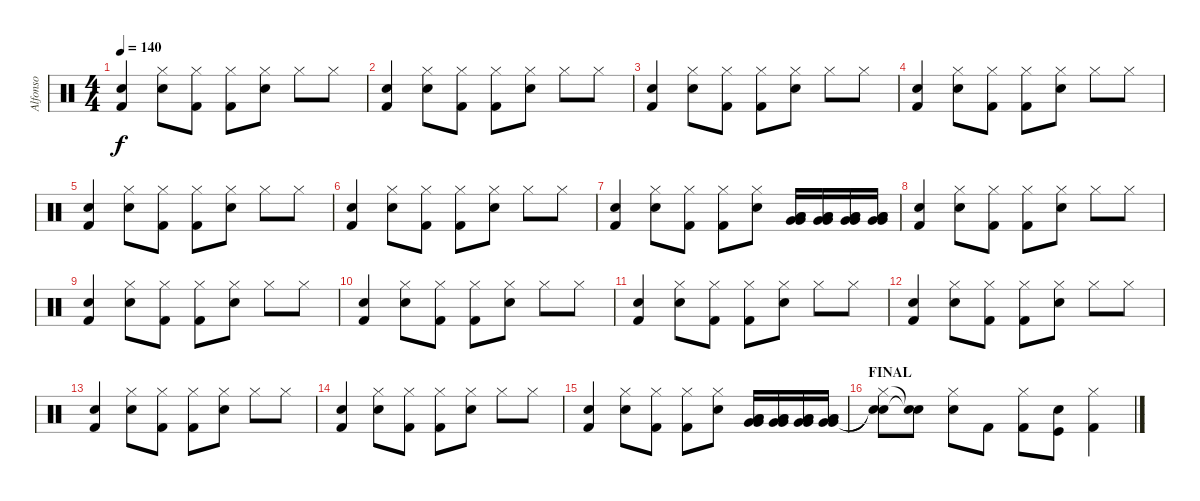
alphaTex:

\track ("Alfonso" "Alfonso") {instrument percussion}
\staff {score}
\articulation defaults
\ts (4 4)
\section ("" "")
\tempo 140
\clef neutral
\ks c
("Kick (hit) 2" "Electric Snare (hit)").4{dy f} ("Hi-Hat (closed)" "Electric Snare (hit)").8 ("Hi-Hat (closed)" "Kick (hit) 2").8 ("Hi-Hat (closed)" "Kick (hit) 2").8 ("Hi-Hat (closed)" "Electric Snare (hit)").8 "Hi-Hat (closed)".8 "Hi-Hat (closed)".8 |
("Kick (hit) 2" "Electric Snare (hit)").4 ("Hi-Hat (closed)" "Electric Snare (hit)").8 ("Hi-Hat (closed)" "Kick (hit) 2").8 ("Hi-Hat (closed)" "Kick (hit) 2").8 ("Hi-Hat (closed)" "Electric Snare (hit)").8 "Hi-Hat (closed)".8 "Hi-Hat (closed)".8 |
("Kick (hit) 2" "Electric Snare (hit)").4 ("Hi-Hat (closed)" "Electric Snare (hit)").8 ("Hi-Hat (closed)" "Kick (hit) 2").8 ("Hi-Hat (closed)" "Kick (hit) 2").8 ("Hi-Hat (closed)" "Electric Snare (hit)").8 "Hi-Hat (closed)".8 "Hi-Hat (closed)".8 |
("Kick (hit) 2" "Electric Snare (hit)").4 ("Hi-Hat (closed)" "Electric Snare (hit)").8 ("Hi-Hat (closed)" "Kick (hit) 2").8 ("Hi-Hat (closed)" "Kick (hit) 2").8 ("Hi-Hat (closed)" "Electric Snare (hit)").8 "Hi-Hat (closed)".8 "Hi-Hat (closed)".8 |
("Kick (hit) 2" "Electric Snare (hit)").4 ("Hi-Hat (closed)" "Electric Snare (hit)").8 ("Hi-Hat (closed)" "Kick (hit) 2").8 ("Hi-Hat (closed)" "Kick (hit) 2").8 ("Hi-Hat (closed)" "Electric Snare (hit)").8 "Hi-Hat (closed)".8 "Hi-Hat (closed)".8 |
("Kick (hit) 2" "Electric Snare (hit)").4 ("Hi-Hat (closed)" "Electric Snare (hit)").8 ("Hi-Hat (closed)" "Kick (hit) 2").8 ("Hi-Hat (closed)" "Kick (hit) 2").8 ("Hi-Hat (closed)" "Electric Snare (hit)").8 "Hi-Hat (closed)".8 "Hi-Hat (closed)".8 |
("Kick (hit) 2" "Electric Snare (hit)").4 ("Hi-Hat (closed)" "Electric Snare (hit)").8 ("Hi-Hat (closed)" "Kick (hit) 2").8 ("Hi-Hat (closed)" "Kick (hit) 2").8 ("Hi-Hat (closed)" "Electric Snare (hit)").8 ("Low Floor Tom (hit)" "Very Low Tom (hit)" "Very Low Tom (hit)" "Low Floor Tom (hit)").16 ("Low Floor Tom (hit)" "Very Low Tom (hit)" "Very Low Tom (hit)" "Low Floor Tom (hit)").16 ("Low Floor Tom (hit)" "Very Low Tom (hit)" "Very Low Tom (hit)" "Low Floor Tom (hit)").16 ("Low Floor Tom (hit)" "Very Low Tom (hit)" "Very Low Tom (hit)" "Low Floor Tom (hit)").16 |
("Kick (hit) 2" "Electric Snare (hit)").4 ("Hi-Hat (closed)" "Electric Snare (hit)").8 ("Hi-Hat (closed)" "Kick (hit) 2").8 ("Hi-Hat (closed)" "Kick (hit) 2").8 ("Hi-Hat (closed)" "Electric Snare (hit)").8 "Hi-Hat (closed)".8 "Hi-Hat (closed)".8 |
("Kick (hit) 2" "Electric Snare (hit)").4 ("Hi-Hat (closed)" "Electric Snare (hit)").8 ("Hi-Hat (closed)" "Kick (hit) 2").8 ("Hi-Hat (closed)" "Kick (hit) 2").8 ("Hi-Hat (closed)" "Electric Snare (hit)").8 "Hi-Hat (closed)".8 "Hi-Hat (closed)".8 |
("Kick (hit) 2" "Electric Snare (hit)").4 ("Hi-Hat (closed)" "Electric Snare (hit)").8 ("Hi-Hat (closed)" "Kick (hit) 2").8 ("Hi-Hat (closed)" "Kick (hit) 2").8 ("Hi-Hat (closed)" "Electric Snare (hit)").8 "Hi-Hat (closed)".8 "Hi-Hat (closed)".8 |
("Kick (hit) 2" "Electric Snare (hit)").4 ("Hi-Hat (closed)" "Electric Snare (hit)").8 ("Hi-Hat (closed)" "Kick (hit) 2").8 ("Hi-Hat (closed)" "Kick (hit) 2").8 ("Hi-Hat (closed)" "Electric Snare (hit)").8 "Hi-Hat (closed)".8 "Hi-Hat (closed)".8 |
("Kick (hit) 2" "Electric Snare (hit)").4 ("Hi-Hat (closed)" "Electric Snare (hit)").8 ("Hi-Hat (closed)" "Kick (hit) 2").8 ("Hi-Hat (closed)" "Kick (hit) 2").8 ("Hi-Hat (closed)" "Electric Snare (hit)").8 "Hi-Hat (closed)".8 "Hi-Hat (closed)".8 |
("Kick (hit) 2" "Electric Snare (hit)").4 ("Hi-Hat (closed)" "Electric Snare (hit)").8 ("Hi-Hat (closed)" "Kick (hit) 2").8 ("Hi-Hat (closed)" "Kick (hit) 2").8 ("Hi-Hat (closed)" "Electric Snare (hit)").8 "Hi-Hat (closed)".8 "Hi-Hat (closed)".8 |
("Kick (hit) 2" "Electric Snare (hit)").4 ("Hi-Hat (closed)" "Electric Snare (hit)").8 ("Hi-Hat (closed)" "Kick (hit) 2").8 ("Hi-Hat (closed)" "Kick (hit) 2").8 ("Hi-Hat (closed)" "Electric Snare (hit)").8 "Hi-Hat (closed)".8 "Hi-Hat (closed)".8 |
("Kick (hit) 2" "Electric Snare (hit)").4 ("Hi-Hat (closed)" "Electric Snare (hit)").8 ("Hi-Hat (closed)" "Kick (hit) 2").8 ("Hi-Hat (closed)" "Kick (hit) 2").8 ("Hi-Hat (closed)" "Electric Snare (hit)").8 ("Low Floor Tom (hit)" "Very Low Tom (hit)" "Very Low Tom (hit)" "Low Floor Tom (hit)").16 ("Low Floor Tom (hit)" "Very Low Tom (hit)" "Very Low Tom (hit)" "Low Floor Tom (hit)").16 ("Low Floor Tom (hit)" "Very Low Tom (hit)" "Very Low Tom (hit)" "Low Floor Tom (hit)").16 ("Low Floor Tom (hit)" "Very Low Tom (hit)" "Very Low Tom (hit)" "Low Floor Tom (hit)").16 |
\section ("" "FINAL")
("Hi-Hat (closed)" "Snare (hit)"{t} "Snare (hit)"{t}).8 ("Snare (hit)"{t} "Snare (hit)"{t}).8 ("Hi-Hat (closed)" "Electric Snare (hit)").8 "Kick (hit) 2".8 ("Hi-Hat (closed)" "Kick (hit) 2").8 ("Electric Snare (hit)" "Kick (hit)").8 ("Hi-Hat (closed)" "Kick (hit) 2").4
